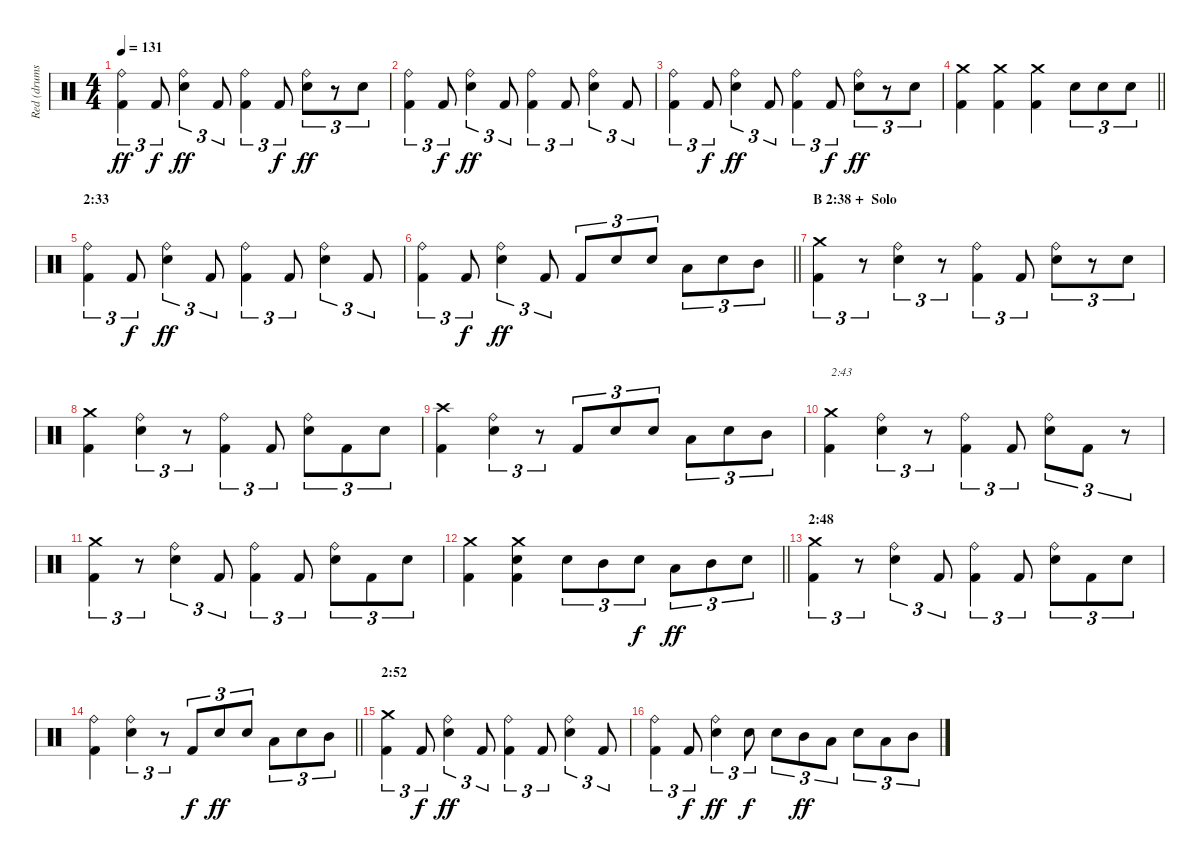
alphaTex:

\track ("Red (drums)" "Red (drums") {instrument percussion}
\staff {score}
\articulation defaults
\ts (4 4)
\tempo 131
\clef neutral
\ks c
("Ride (bell)" "Kick (hit) 2").4{tu (3 2) dy ff} "Kick (hit) 2".8{tu (3 2) dy f} ("Ride (bell)" "Electric Snare (hit)").4{tu (3 2) dy ff} "Kick (hit) 2".8{tu (3 2)} ("Ride (bell)" "Kick (hit) 2").4{tu (3 2)} "Kick (hit) 2".8{tu (3 2) dy f} ("Ride (bell)" "Electric Snare (hit)").8{tu (3 2) dy ff} r.8{tu (3 2)} "Electric Snare (hit)".8{tu (3 2)} |
("Ride (bell)" "Kick (hit) 2").4{tu (3 2)} "Kick (hit) 2".8{tu (3 2) dy f} ("Ride (bell)" "Electric Snare (hit)").4{tu (3 2) dy ff} "Kick (hit) 2".8{tu (3 2)} ("Ride (bell)" "Kick (hit) 2").4{tu (3 2)} "Kick (hit) 2".8{tu (3 2)} ("Ride (bell)" "Electric Snare (hit)").4{tu (3 2)} "Kick (hit) 2".8{tu (3 2)} |
("Ride (bell)" "Kick (hit) 2").4{tu (3 2)} "Kick (hit) 2".8{tu (3 2) dy f} ("Ride (bell)" "Electric Snare (hit)").4{tu (3 2) dy ff} "Kick (hit) 2".8{tu (3 2)} ("Ride (bell)" "Kick (hit) 2").4{tu (3 2)} "Kick (hit) 2".8{tu (3 2) dy f} ("Ride (bell)" "Electric Snare (hit)").8{tu (3 2) dy ff} r.8{tu (3 2)} "Electric Snare (hit)".8{tu (3 2)} |
\barLineRight lightlight
("Crash medium (hit)" "Kick (hit) 2").4 ("Crash medium (hit)" "Kick (hit) 2").4 ("Crash medium (hit)" "Kick (hit) 2").4 "Electric Snare (hit)".8{tu (3 2)} "Electric Snare (hit)".8{tu (3 2)} "Electric Snare (hit)".8{tu (3 2)} |
\section ("" "2:33")
("Ride (bell)" "Kick (hit) 2").4{tu (3 2)} "Kick (hit) 2".8{tu (3 2) dy f} ("Ride (bell)" "Electric Snare (hit)").4{tu (3 2) dy ff} "Kick (hit) 2".8{tu (3 2)} ("Ride (bell)" "Kick (hit) 2").4{tu (3 2)} "Kick (hit) 2".8{tu (3 2)} ("Ride (bell)" "Electric Snare (hit)").4{tu (3 2)} "Kick (hit) 2".8{tu (3 2)} |
\barLineRight lightlight
("Ride (bell)" "Kick (hit) 2").4{tu (3 2)} "Kick (hit) 2".8{tu (3 2) dy f} ("Ride (bell)" "Electric Snare (hit)").4{tu (3 2) dy ff} "Kick (hit) 2".8{tu (3 2)} "Kick (hit) 2".8{tu (3 2)} "Electric Snare (hit)".8{tu (3 2)} "Electric Snare (hit)".8{tu (3 2)} "Low Tom (hit)".8{tu (3 2)} "Electric Snare (hit)".8{tu (3 2)} "Mid Tom (hit)".8{tu (3 2)} |
\section ("" "B 2:38 +  Solo")
("Crash medium (hit)" "Kick (hit) 2").4{tu (3 2)} r.8{tu (3 2)} ("Ride (bell)" "Electric Snare (hit)").4{tu (3 2)} r.8{tu (3 2)} ("Ride (bell)" "Kick (hit) 2").4{tu (3 2)} "Kick (hit) 2".8{tu (3 2)} ("Ride (bell)" "Electric Snare (hit)").8{tu (3 2)} r.8{tu (3 2)} "Electric Snare (hit)".8{tu (3 2)} |
("Crash medium (hit)" "Kick (hit) 2").4 ("Ride (bell)" "Electric Snare (hit)").4{tu (3 2)} r.8{tu (3 2)} ("Ride (bell)" "Kick (hit) 2").4{tu (3 2)} "Kick (hit) 2".8{tu (3 2)} ("Ride (bell)" "Electric Snare (hit)").8{tu (3 2)} "Kick (hit) 2".8{tu (3 2)} "Electric Snare (hit)".8{tu (3 2)} |
("Crash high (hit)" "Kick (hit) 2").4 ("Ride (bell)" "Electric Snare (hit)").4{tu (3 2)} r.8{tu (3 2)} "Kick (hit) 2".8{tu (3 2)} "Electric Snare (hit)".8{tu (3 2)} "Electric Snare (hit)".8{tu (3 2)} "Low Tom (hit)".8{tu (3 2)} "Electric Snare (hit)".8{tu (3 2)} "Mid Tom (hit)".8{tu (3 2)} |
("Crash medium (hit)" "Kick (hit) 2").4{txt "2:43"} ("Ride (bell)" "Electric Snare (hit)").4{tu (3 2)} r.8{tu (3 2)} ("Ride (bell)" "Kick (hit) 2").4{tu (3 2)} "Kick (hit) 2".8{tu (3 2)} ("Ride (bell)" "Electric Snare (hit)").8{tu (3 2)} "Kick (hit) 2".8{tu (3 2)} r.8{tu (3 2)} |
("Crash medium (hit)" "Kick (hit) 2").4{tu (3 2)} r.8{tu (3 2)} ("Ride (bell)" "Electric Snare (hit)").4{tu (3 2)} "Kick (hit) 2".8{tu (3 2)} ("Ride (bell)" "Kick (hit) 2").4{tu (3 2)} "Kick (hit) 2".8{tu (3 2)} ("Ride (bell)" "Electric Snare (hit)").8{tu (3 2)} "Kick (hit) 2".8{tu (3 2)} "Electric Snare (hit)".8{tu (3 2)} |
\barLineRight lightlight
("Crash medium (hit)" "Kick (hit) 2").4 ("Crash medium (hit)" "Electric Snare (hit)" "Kick (hit) 2").4 "Electric Snare (hit)".8{tu (3 2)} "Mid Tom (hit)".8{tu (3 2)} "Electric Snare (hit)".8{tu (3 2) dy f} "Low Tom (hit)".8{tu (3 2) dy ff} "Mid Tom (hit)".8{tu (3 2)} "Electric Snare (hit)".8{tu (3 2)} |
\section ("" "2:48")
("Crash medium (hit)" "Kick (hit) 2").4{tu (3 2)} r.8{tu (3 2)} ("Ride (bell)" "Electric Snare (hit)").4{tu (3 2)} "Kick (hit) 2".8{tu (3 2)} ("Ride (bell)" "Kick (hit) 2").4{tu (3 2)} "Kick (hit) 2".8{tu (3 2)} ("Ride (bell)" "Electric Snare (hit)").8{tu (3 2)} "Kick (hit) 2".8{tu (3 2)} "Electric Snare (hit)".8{tu (3 2)} |
\barLineRight lightlight
("Ride (bell)" "Kick (hit) 2").4 ("Ride (bell)" "Electric Snare (hit)").4{tu (3 2)} r.8{tu (3 2)} "Kick (hit) 2".8{tu (3 2) dy f} "Electric Snare (hit)".8{tu (3 2) dy ff} "Electric Snare (hit)".8{tu (3 2)} "Low Tom (hit)".8{tu (3 2)} "Electric Snare (hit)".8{tu (3 2)} "Mid Tom (hit)".8{tu (3 2)} |
\section ("" "2:52")
("Crash medium (hit)" "Kick (hit) 2").4{tu (3 2)} "Kick (hit) 2".8{tu (3 2) dy f} ("Ride (bell)" "Electric Snare (hit)").4{tu (3 2) dy ff} "Kick (hit) 2".8{tu (3 2)} ("Ride (bell)" "Kick (hit) 2").4{tu (3 2)} "Kick (hit) 2".8{tu (3 2)} ("Ride (bell)" "Electric Snare (hit)").4{tu (3 2)} "Kick (hit) 2".8{tu (3 2)} |
("Ride (bell)" "Kick (hit) 2").4{tu (3 2)} "Kick (hit) 2".8{tu (3 2) dy f} ("Ride (bell)" "Electric Snare (hit)").4{tu (3 2) dy ff} "Electric Snare (hit)".8{tu (3 2) dy f} "Electric Snare (hit)".8{tu (3 2)} "Mid Tom (hit)".8{tu (3 2) dy ff} "Low Tom (hit)".8{tu (3 2)} "Electric Snare (hit)".8{tu (3 2)} "Low Tom (hit)".8{tu (3 2)} "Mid Tom (hit)".8{tu (3 2)}
